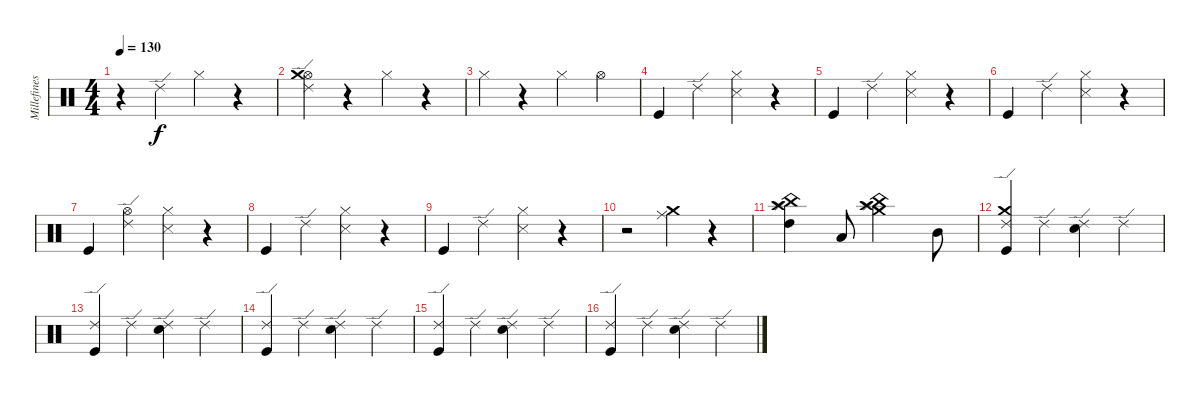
\track ("Millefinestre" "Millefines") {instrument percussion}
\staff {score}
\articulation defaults
\ts (4 4)
\tempo 130
\clef neutral
\ks c
r.4{dy f} "Ride (edge) 2".4 "Hi-Hat (closed)".4 r.4 |
("Hi-Hat (open)" "Crash medium (hit)" "Ride (edge) 2").4 r.4 "Hi-Hat (closed)".4 r.4 |
"Hi-Hat (closed)".4 r.4 "Hi-Hat (closed)".4 "Hi-Hat (open)".4 |
"Kick (hit)".4 "Ride (edge) 2".4 ("Hi-Hat (closed)" "Snare (side stick) 3").4 r.4 |
"Kick (hit)".4 "Ride (edge) 2".4 ("Hi-Hat (closed)" "Snare (side stick) 3").4 r.4 |
"Kick (hit)".4 "Ride (edge) 2".4 ("Hi-Hat (closed)" "Snare (side stick) 3").4 r.4 |
"Kick (hit)".4 ("Hi-Hat (open)" "Ride (edge) 2").4 ("Hi-Hat (closed)" "Snare (side stick) 3").4 r.4 |
"Kick (hit)".4 "Ride (edge) 2".4 ("Hi-Hat (closed)" "Snare (side stick) 3").4 r.4 |
"Kick (hit)".4 "Ride (edge) 2".4 ("Hi-Hat (closed)" "Snare (side stick) 3").4 r.4 |
r.2 ("Ride (middle)" "Crash medium (hit)").4 r.4 |
("Crash high (hit)" "China (hit)" "Splash (hit)" "High Tom (hit)").4 "Low Tom (hit)".8 ("Crash medium (hit)" "Crash high (hit)" "China (hit)" "Splash (hit)").2 "Mid Tom (hit)".8 |
("Crash medium (hit)" "Ride (edge) 2" "Kick (hit)").4 "Ride (edge) 2".4 ("Ride (edge) 2" "Snare (hit) 2").4 "Ride (edge) 2".4 |
("Ride (edge) 2" "Kick (hit)").4 "Ride (edge) 2".4 ("Ride (edge) 2" "Snare (hit) 2").4 "Ride (edge) 2".4 |
("Ride (edge) 2" "Kick (hit)").4 "Ride (edge) 2".4 ("Ride (edge) 2" "Snare (hit) 2").4 "Ride (edge) 2".4 |
("Ride (edge) 2" "Kick (hit)").4 "Ride (edge) 2".4 ("Ride (edge) 2" "Snare (hit) 2").4 "Ride (edge) 2".4 |
("Ride (edge) 2" "Kick (hit)").4 "Ride (edge) 2".4 ("Ride (edge) 2" "Snare (hit) 2").4 "Ride (edge) 2".4
